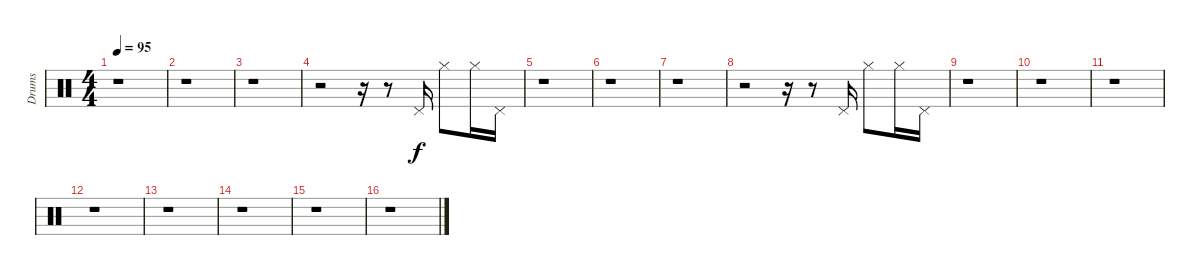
\track ("Drums" "Drums") {instrument percussion}
\staff {score}
\articulation defaults
\ts (4 4)
\tempo 95
\clef neutral
\ks c
r.1{dy f} |
r.1 |
r.1 |
r.2 r.16 r.8 "Pedal Hi-Hat (hit)".16 "Hi-Hat (closed)".8 "Hi-Hat (closed)".16 "Pedal Hi-Hat (hit)".16 |
r.1 |
r.1 |
r.1 |
r.2 r.16 r.8 "Pedal Hi-Hat (hit)".16 "Hi-Hat (closed)".8 "Hi-Hat (closed)".16 "Pedal Hi-Hat (hit)".16 |
r.1 |
r.1 |
r.1 |
r.1 |
r.1 |
r.1 |
r.1 |
r.1
